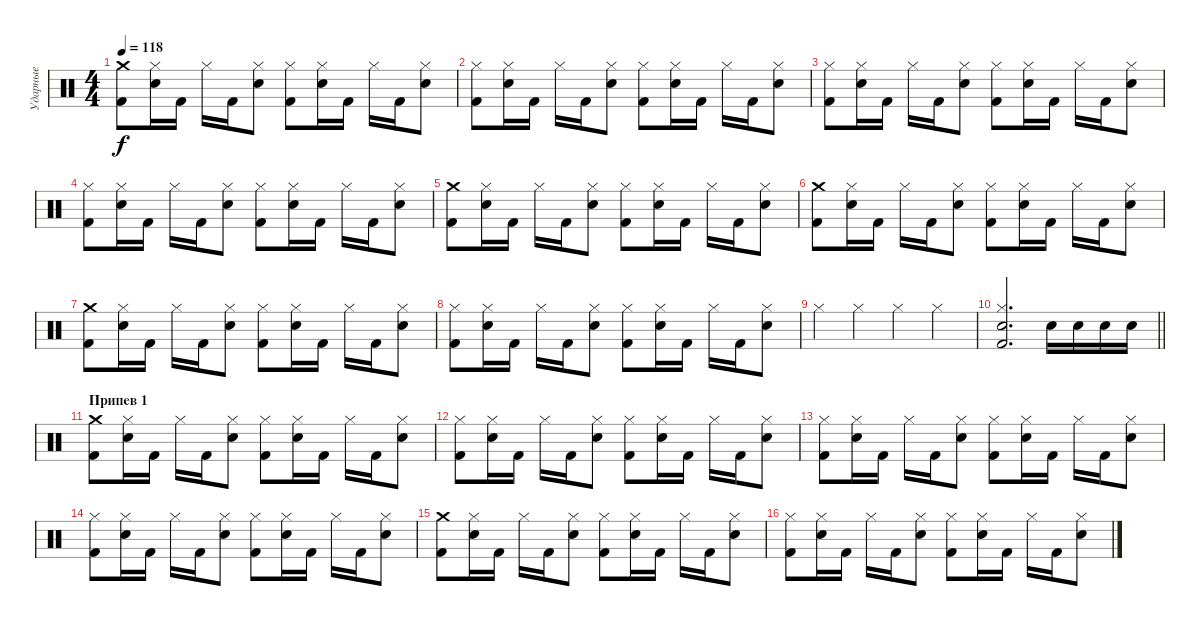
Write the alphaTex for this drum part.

\track ("Ударные" "Ударные") {instrument percussion}
\staff {score}
\articulation defaults
\ts (4 4)
\tempo 118
\clef neutral
\ks c
("Crash medium (hit)" "Kick (hit) 2").8{dy f} ("Hi-Hat (closed)" "Snare (hit) 2").16 "Kick (hit) 2".16 "Hi-Hat (closed)".16 "Kick (hit) 2".16 ("Hi-Hat (closed)" "Snare (hit) 2").8 ("Hi-Hat (closed)" "Kick (hit) 2").8 ("Hi-Hat (closed)" "Snare (hit) 2").16 "Kick (hit) 2".16 "Hi-Hat (closed)".16 "Kick (hit) 2".16 ("Hi-Hat (closed)" "Snare (hit) 2").8 |
("Hi-Hat (closed)" "Kick (hit) 2").8 ("Hi-Hat (closed)" "Snare (hit) 2").16 "Kick (hit) 2".16 "Hi-Hat (closed)".16 "Kick (hit) 2".16 ("Hi-Hat (closed)" "Snare (hit) 2").8 ("Hi-Hat (closed)" "Kick (hit) 2").8 ("Hi-Hat (closed)" "Snare (hit) 2").16 "Kick (hit) 2".16 "Hi-Hat (closed)".16 "Kick (hit) 2".16 ("Hi-Hat (closed)" "Snare (hit) 2").8 |
("Hi-Hat (closed)" "Kick (hit) 2").8 ("Hi-Hat (closed)" "Snare (hit) 2").16 "Kick (hit) 2".16 "Hi-Hat (closed)".16 "Kick (hit) 2".16 ("Hi-Hat (closed)" "Snare (hit) 2").8 ("Hi-Hat (closed)" "Kick (hit) 2").8 ("Hi-Hat (closed)" "Snare (hit) 2").16 "Kick (hit) 2".16 "Hi-Hat (closed)".16 "Kick (hit) 2".16 ("Hi-Hat (closed)" "Snare (hit) 2").8 |
("Hi-Hat (closed)" "Kick (hit) 2").8 ("Hi-Hat (closed)" "Snare (hit) 2").16 "Kick (hit) 2".16 "Hi-Hat (closed)".16 "Kick (hit) 2".16 ("Hi-Hat (closed)" "Snare (hit) 2").8 ("Hi-Hat (closed)" "Kick (hit) 2").8 ("Hi-Hat (closed)" "Snare (hit) 2").16 "Kick (hit) 2".16 "Hi-Hat (closed)".16 "Kick (hit) 2".16 ("Hi-Hat (closed)" "Snare (hit) 2").8 |
("Crash medium (hit)" "Kick (hit) 2").8 ("Hi-Hat (closed)" "Snare (hit) 2").16 "Kick (hit) 2".16 "Hi-Hat (closed)".16 "Kick (hit) 2".16 ("Hi-Hat (closed)" "Snare (hit) 2").8 ("Hi-Hat (closed)" "Kick (hit) 2").8 ("Hi-Hat (closed)" "Snare (hit) 2").16 "Kick (hit) 2".16 "Hi-Hat (closed)".16 "Kick (hit) 2".16 ("Hi-Hat (closed)" "Snare (hit) 2").8 |
("Crash medium (hit)" "Kick (hit) 2").8 ("Hi-Hat (closed)" "Snare (hit) 2").16 "Kick (hit) 2".16 "Hi-Hat (closed)".16 "Kick (hit) 2".16 ("Hi-Hat (closed)" "Snare (hit) 2").8 ("Hi-Hat (closed)" "Kick (hit) 2").8 ("Hi-Hat (closed)" "Snare (hit) 2").16 "Kick (hit) 2".16 "Hi-Hat (closed)".16 "Kick (hit) 2".16 ("Hi-Hat (closed)" "Snare (hit) 2").8 |
("Crash medium (hit)" "Kick (hit) 2").8 ("Hi-Hat (closed)" "Snare (hit) 2").16 "Kick (hit) 2".16 "Hi-Hat (closed)".16 "Kick (hit) 2".16 ("Hi-Hat (closed)" "Snare (hit) 2").8 ("Hi-Hat (closed)" "Kick (hit) 2").8 ("Hi-Hat (closed)" "Snare (hit) 2").16 "Kick (hit) 2".16 "Hi-Hat (closed)".16 "Kick (hit) 2".16 ("Hi-Hat (closed)" "Snare (hit) 2").8 |
("Hi-Hat (closed)" "Kick (hit) 2").8 ("Hi-Hat (closed)" "Snare (hit) 2").16 "Kick (hit) 2".16 "Hi-Hat (closed)".16 "Kick (hit) 2".16 ("Hi-Hat (closed)" "Snare (hit) 2").8 ("Hi-Hat (closed)" "Kick (hit) 2").8 ("Hi-Hat (closed)" "Snare (hit) 2").16 "Kick (hit) 2".16 "Hi-Hat (closed)".16 "Kick (hit) 2".16 ("Hi-Hat (closed)" "Snare (hit) 2").8 |
"Hi-Hat (closed)".4 "Hi-Hat (closed)".4 "Hi-Hat (closed)".4 "Hi-Hat (closed)".4 |
\barLineRight lightlight
("Hi-Hat (closed)" "Kick (hit) 2" "Snare (hit) 2").2{d} "Electric Snare (hit)".16 "Electric Snare (hit)".16 "Electric Snare (hit)".16 "Electric Snare (hit)".16 |
\section ("" "Припев 1")
("Crash medium (hit)" "Kick (hit) 2").8 ("Hi-Hat (closed)" "Snare (hit) 2").16 "Kick (hit) 2".16 "Hi-Hat (closed)".16 "Kick (hit) 2".16 ("Hi-Hat (closed)" "Snare (hit) 2").8 ("Hi-Hat (closed)" "Kick (hit) 2").8 ("Hi-Hat (closed)" "Snare (hit) 2").16 "Kick (hit) 2".16 "Hi-Hat (closed)".16 "Kick (hit) 2".16 ("Hi-Hat (closed)" "Snare (hit) 2").8 |
("Hi-Hat (closed)" "Kick (hit) 2").8 ("Hi-Hat (closed)" "Snare (hit) 2").16 "Kick (hit) 2".16 "Hi-Hat (closed)".16 "Kick (hit) 2".16 ("Hi-Hat (closed)" "Snare (hit) 2").8 ("Hi-Hat (closed)" "Kick (hit) 2").8 ("Hi-Hat (closed)" "Snare (hit) 2").16 "Kick (hit) 2".16 "Hi-Hat (closed)".16 "Kick (hit) 2".16 ("Hi-Hat (closed)" "Snare (hit) 2").8 |
("Hi-Hat (closed)" "Kick (hit) 2").8 ("Hi-Hat (closed)" "Snare (hit) 2").16 "Kick (hit) 2".16 "Hi-Hat (closed)".16 "Kick (hit) 2".16 ("Hi-Hat (closed)" "Snare (hit) 2").8 ("Hi-Hat (closed)" "Kick (hit) 2").8 ("Hi-Hat (closed)" "Snare (hit) 2").16 "Kick (hit) 2".16 "Hi-Hat (closed)".16 "Kick (hit) 2".16 ("Hi-Hat (closed)" "Snare (hit) 2").8 |
("Hi-Hat (closed)" "Kick (hit) 2").8 ("Hi-Hat (closed)" "Snare (hit) 2").16 "Kick (hit) 2".16 "Hi-Hat (closed)".16 "Kick (hit) 2".16 ("Hi-Hat (closed)" "Snare (hit) 2").8 ("Hi-Hat (closed)" "Kick (hit) 2").8 ("Hi-Hat (closed)" "Snare (hit) 2").16 "Kick (hit) 2".16 "Hi-Hat (closed)".16 "Kick (hit) 2".16 ("Hi-Hat (closed)" "Snare (hit) 2").8 |
("Crash medium (hit)" "Kick (hit) 2").8 ("Hi-Hat (closed)" "Snare (hit) 2").16 "Kick (hit) 2".16 "Hi-Hat (closed)".16 "Kick (hit) 2".16 ("Hi-Hat (closed)" "Snare (hit) 2").8 ("Hi-Hat (closed)" "Kick (hit) 2").8 ("Hi-Hat (closed)" "Snare (hit) 2").16 "Kick (hit) 2".16 "Hi-Hat (closed)".16 "Kick (hit) 2".16 ("Hi-Hat (closed)" "Snare (hit) 2").8 |
("Hi-Hat (closed)" "Kick (hit) 2").8 ("Hi-Hat (closed)" "Snare (hit) 2").16 "Kick (hit) 2".16 "Hi-Hat (closed)".16 "Kick (hit) 2".16 ("Hi-Hat (closed)" "Snare (hit) 2").8 ("Hi-Hat (closed)" "Kick (hit) 2").8 ("Hi-Hat (closed)" "Snare (hit) 2").16 "Kick (hit) 2".16 "Hi-Hat (closed)".16 "Kick (hit) 2".16 ("Hi-Hat (closed)" "Snare (hit) 2").8
